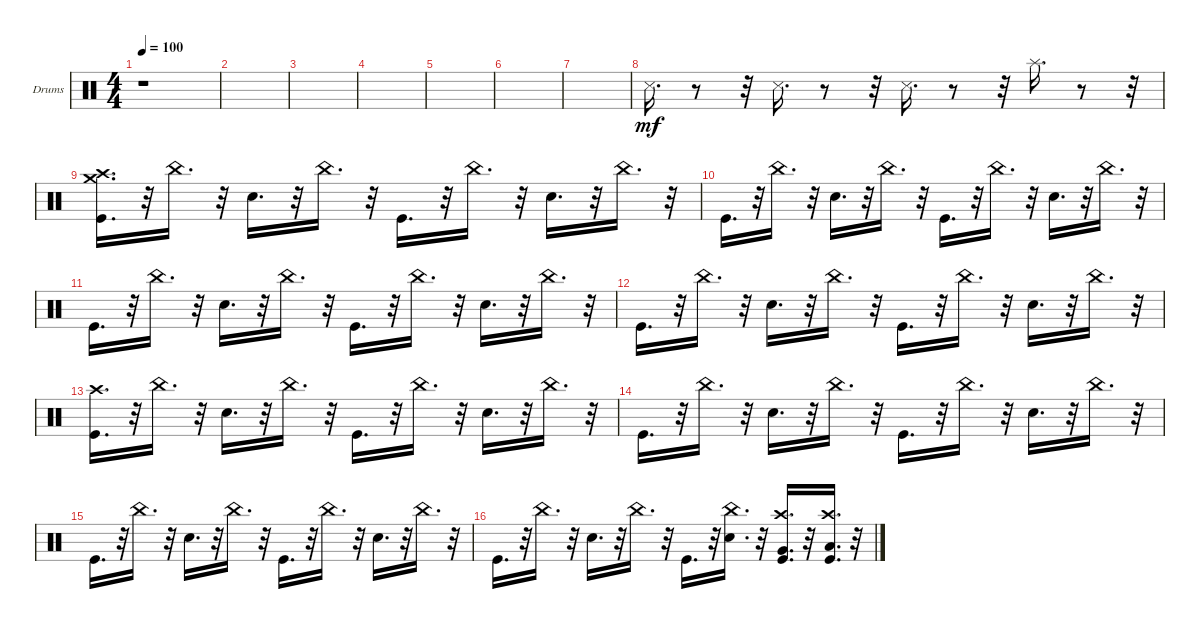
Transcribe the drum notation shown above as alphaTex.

\bracketExtendMode groupsimilarinstruments
\firstSystemTrackNameOrientation horizontal
\otherSystemsTrackNameOrientation horizontal
\track ("Drums" "Drums") {instrument percussion}
\staff {score}
\articulation defaults
\ts (4 4)
\tempo 100
\clef neutral
\ks c
r.1{dy mf} |
|
|
|
|
|
|
"Snare (side stick) 3".16{d} r.8 r.32 "Snare (side stick) 3".16{d} r.8 r.32 "Snare (side stick) 3".16{d} r.8 r.32 "Splash (hit)".16{d} r.8 r.32 |
("Kick (hit)" "Crash medium (hit)" "Crash high (hit)").16{d} r.32 "China (hit)".16{d} r.32 "Snare (hit) 2".16{d} r.32 "China (hit)".16{d} r.32 "Kick (hit)".16{d} r.32 "China (hit)".16{d} r.32 "Snare (hit) 2".16{d} r.32 "China (hit)".16{d} r.32 |
"Kick (hit)".16{d} r.32 "China (hit)".16{d} r.32 "Snare (hit) 2".16{d} r.32 "China (hit)".16{d} r.32 "Kick (hit)".16{d} r.32 "China (hit)".16{d} r.32 "Snare (hit) 2".16{d} r.32 "China (hit)".16{d} r.32 |
"Kick (hit)".16{d} r.32 "China (hit)".16{d} r.32 "Snare (hit) 2".16{d} r.32 "China (hit)".16{d} r.32 "Kick (hit)".16{d} r.32 "China (hit)".16{d} r.32 "Snare (hit) 2".16{d} r.32 "China (hit)".16{d} r.32 |
"Kick (hit)".16{d} r.32 "China (hit)".16{d} r.32 "Snare (hit) 2".16{d} r.32 "China (hit)".16{d} r.32 "Kick (hit)".16{d} r.32 "China (hit)".16{d} r.32 "Snare (hit) 2".16{d} r.32 "China (hit)".16{d} r.32 |
("Kick (hit)" "Crash high (hit)").16{d} r.32 "China (hit)".16{d} r.32 "Snare (hit) 2".16{d} r.32 "China (hit)".16{d} r.32 "Kick (hit)".16{d} r.32 "China (hit)".16{d} r.32 "Snare (hit) 2".16{d} r.32 "China (hit)".16{d} r.32 |
"Kick (hit)".16{d} r.32 "China (hit)".16{d} r.32 "Snare (hit) 2".16{d} r.32 "China (hit)".16{d} r.32 "Kick (hit)".16{d} r.32 "China (hit)".16{d} r.32 "Snare (hit) 2".16{d} r.32 "China (hit)".16{d} r.32 |
"Kick (hit)".16{d} r.32 "China (hit)".16{d} r.32 "Snare (hit) 2".16{d} r.32 "China (hit)".16{d} r.32 "Kick (hit)".16{d} r.32 "China (hit)".16{d} r.32 "Snare (hit) 2".16{d} r.32 "China (hit)".16{d} r.32 |
"Kick (hit)".16{d} r.32 "China (hit)".16{d} r.32 "Snare (hit) 2".16{d} r.32 "China (hit)".16{d} r.32 "Kick (hit)".16{d} r.32 ("China (hit)" "Snare (hit) 2").16{d} r.32 ("Crash high (hit)" "Kick (hit)" "Very Low Tom (hit)").16{d} r.32 ("Crash high (hit)" "Kick (hit)" "Low Tom (hit)").16{d} r.32
